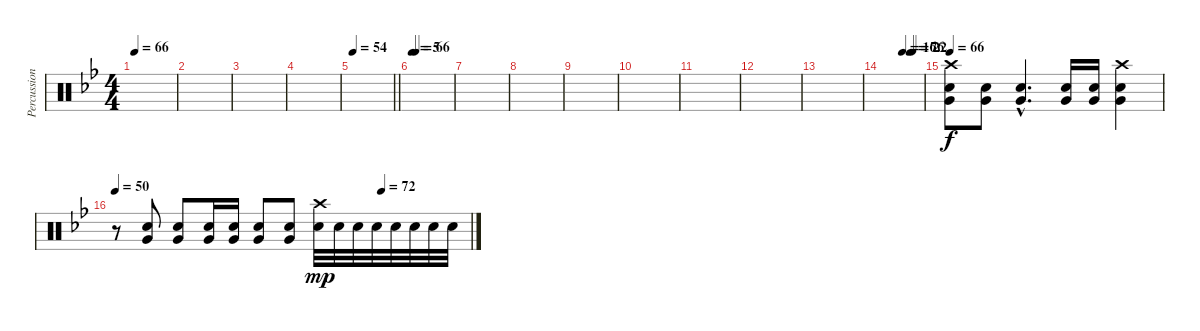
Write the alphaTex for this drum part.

\track ("Percussions" "Percussion") {instrument percussion}
\staff {score}
\articulation defaults
\ts (4 4)
\tempo 66
\clef neutral
\ks bb
|
|
|
|
\tempo 54
\barLineRight lightlight
|
\tempo 5
\tempo (66 0.08333333333333333)
|
|
|
|
|
|
|
|
\tempo (16 0.5)
\tempo (76 0.6875)
\tempo (22 0.75)
|
\tempo 66
("Crash high (hit)" "Snare (hit) 2" "Very Low Tom (hit)").8 ("Snare (hit) 2" "Very Low Tom (hit)").8 ("Snare (hit) 2"{hac} "Very Low Tom (hit)"{hac}).4{d} ("Snare (hit) 2" "Very Low Tom (hit)").16 ("Snare (hit) 2" "Very Low Tom (hit)").16 ("Crash high (hit)" "Snare (hit) 2" "Very Low Tom (hit)").4 |
\tempo 50
\tempo (72 0.75)
r.8 ("Snare (hit) 2" "Very Low Tom (hit)").8 ("Snare (hit) 2" "Very Low Tom (hit)").8 ("Snare (hit) 2" "Very Low Tom (hit)").16 ("Snare (hit) 2" "Very Low Tom (hit)").16 ("Snare (hit) 2" "Very Low Tom (hit)").8 ("Snare (hit) 2" "Very Low Tom (hit)").8 ("Crash high (hit)" "Snare (hit) 2").32{dy mp} "Snare (hit) 2".32 "Snare (hit) 2".32 "Snare (hit) 2".32 "Snare (hit) 2".32 "Snare (hit) 2".32 "Snare (hit) 2".32 "Snare (hit) 2".32
